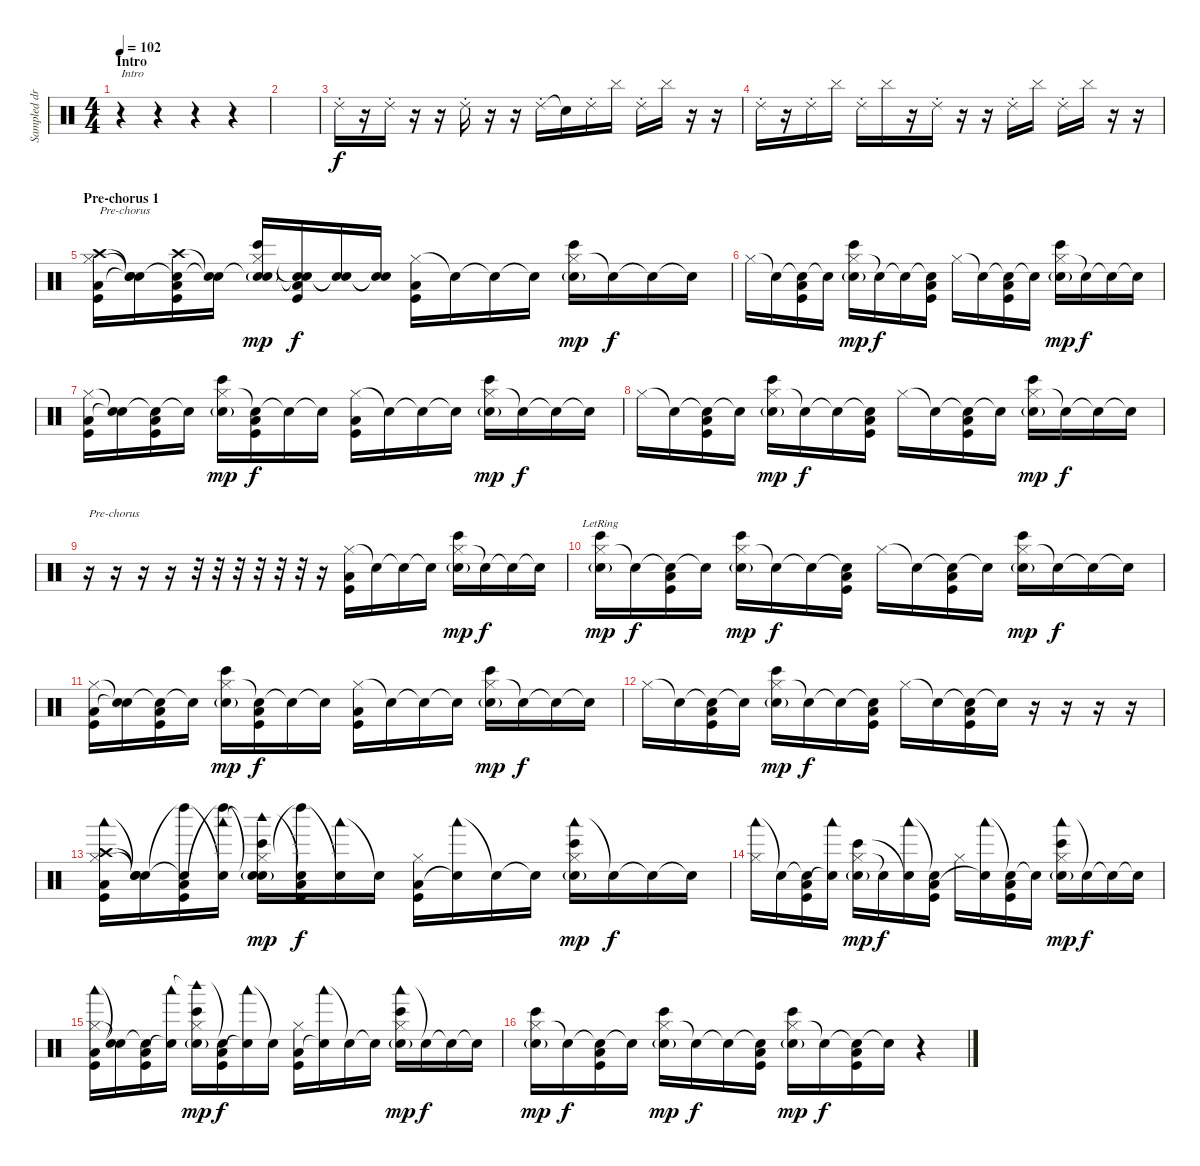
\track ("Sampled drums (Rob and Joe)" "Sampled dr") {instrument percussion}
\staff {score}
\articulation defaults
\ts (4 4)
\section ("" "Intro")
\tempo 102
\clef neutral
\ks c
r.4{txt "Intro" dy f} r.4 r.4 r.4 |
|
"Ride (choke) 2".16{volume 10} r.16 "Ride (choke) 2".16 r.16 r.16 "Ride (choke) 2".16 r.16 r.16 "Ride (choke) 2".16 "Snare (hit)"{t}.16 "Ride (choke) 2".16 "Cymbal (hit)".16 "Ride (choke) 2".16 "Cymbal (hit)".16 r.16 r.16 |
"Ride (choke) 2".16{volume 10} r.16 "Ride (choke) 2".16 "Cymbal (hit)".16 "Ride (choke) 2".16 "Cymbal (hit)".16 r.16 "Ride (choke) 2".16 r.16 r.16 "Ride (choke) 2".16 "Cymbal (hit)".16 "Ride (choke) 2".16 "Cymbal (hit)".16 r.16 r.16 |
\section ("" "Pre-chorus 1")
("Crash high (hit)" "Hi-Hat (closed)" "Low Floor Tom (hit)" "Kick (hit)").16{txt "Pre-chorus" volume 10} ("Snare (hit)"{t} "Snare (hit)"{t} "Snare (hit)"{t}).16 ("Crash high (hit)" "Snare (hit)"{t} "Low Floor Tom (hit)" "Kick (hit)").16 ("Snare (hit)"{t} "Snare (hit)"{t}).16 ("Snare (hit)"{t} "Hi-Hat (closed)" "Bongo High (hit)" "Electric Snare (hit)"{g}).16{dy mp} ("Snare (hit)"{t} "Snare (hit)"{t} "Low Floor Tom (hit)" "Kick (hit)").16{dy f} ("Snare (hit)"{t} "Snare (hit)"{t}).16 ("Snare (hit)"{t} "Snare (hit)"{t}).16 ("Hi-Hat (closed)" "Low Floor Tom (hit)" "Kick (hit)").16 "Snare (hit)"{t}.16 "Snare (hit)"{t}.16 "Snare (hit)"{t}.16 ("Hi-Hat (closed)" "Bongo High (hit)" "Electric Snare (hit)"{g}).16{dy mp} "Snare (hit)"{t}.16{dy f} "Snare (hit)"{t}.16 "Snare (hit)"{t}.16 |
"Hi-Hat (closed)".16 "Snare (hit)"{t}.16 ("Snare (hit)"{t} "Low Floor Tom (hit)" "Kick (hit)").16 "Snare (hit)"{t}.16 ("Hi-Hat (closed)" "Bongo High (hit)" "Electric Snare (hit)"{g}).16{dy mp} "Snare (hit)"{t}.16{dy f} "Snare (hit)"{t}.16 ("Snare (hit)"{t} "Low Floor Tom (hit)" "Kick (hit)").16 "Hi-Hat (closed)".16 "Snare (hit)"{t}.16 ("Snare (hit)"{t} "Low Floor Tom (hit)" "Kick (hit)").16 "Snare (hit)"{t}.16 ("Hi-Hat (closed)" "Bongo High (hit)" "Electric Snare (hit)"{g}).16{dy mp} "Snare (hit)"{t}.16{dy f} "Snare (hit)"{t}.16 "Snare (hit)"{t}.16 |
("Hi-Hat (closed)" "Low Floor Tom (hit)" "Kick (hit)").16 ("Snare (hit)"{t} "Snare (hit)"{t}).16 ("Snare (hit)"{t} "Low Floor Tom (hit)" "Kick (hit)").16 "Snare (hit)"{t}.16 ("Hi-Hat (closed)" "Bongo High (hit)" "Electric Snare (hit)"{g}).16{dy mp} ("Snare (hit)"{t} "Low Floor Tom (hit)" "Kick (hit)").16{dy f} "Snare (hit)"{t}.16 "Snare (hit)"{t}.16 ("Hi-Hat (closed)" "Low Floor Tom (hit)" "Kick (hit)").16 "Snare (hit)"{t}.16 "Snare (hit)"{t}.16 "Snare (hit)"{t}.16 ("Hi-Hat (closed)" "Bongo High (hit)" "Electric Snare (hit)"{g}).16{dy mp} "Snare (hit)"{t}.16{dy f} "Snare (hit)"{t}.16 "Snare (hit)"{t}.16 |
"Hi-Hat (closed)".16 "Snare (hit)"{t}.16 ("Snare (hit)"{t} "Low Floor Tom (hit)" "Kick (hit)").16 "Snare (hit)"{t}.16 ("Hi-Hat (closed)" "Bongo High (hit)" "Electric Snare (hit)"{g}).16{dy mp} "Snare (hit)"{t}.16{dy f} "Snare (hit)"{t}.16 ("Snare (hit)"{t} "Low Floor Tom (hit)" "Kick (hit)").16 "Hi-Hat (closed)".16 "Snare (hit)"{t}.16 ("Snare (hit)"{t} "Low Floor Tom (hit)" "Kick (hit)").16 "Snare (hit)"{t}.16 ("Hi-Hat (closed)" "Bongo High (hit)" "Electric Snare (hit)"{g}).16{dy mp} "Snare (hit)"{t}.16{dy f} "Snare (hit)"{t}.16 "Snare (hit)"{t}.16 |
r.16{txt "Pre-chorus" volume 10} r.16 r.16 r.16 r.32 r.32 r.32 r.32 r.32 r.32 r.16 ("Hi-Hat (closed)" "Low Floor Tom (hit)" "Kick (hit)").16 "Snare (hit)"{t}.16 "Snare (hit)"{t}.16 "Snare (hit)"{t}.16 ("Hi-Hat (closed)" "Bongo High (hit)" "Electric Snare (hit)"{g}).16{dy mp} "Snare (hit)"{t}.16{dy f} "Snare (hit)"{t}.16 "Snare (hit)"{t}.16 |
("Hi-Hat (closed)" "Bongo High (hit)" "Electric Snare (hit)"{g lr}).16{dy mp} "Snare (hit)"{t}.16{dy f} ("Snare (hit)"{t} "Low Floor Tom (hit)" "Kick (hit)").16 "Snare (hit)"{t}.16 ("Hi-Hat (closed)" "Bongo High (hit)" "Electric Snare (hit)"{g}).16{dy mp} "Snare (hit)"{t}.16{dy f} "Snare (hit)"{t}.16 ("Snare (hit)"{t} "Low Floor Tom (hit)" "Kick (hit)").16 "Hi-Hat (closed)".16 "Snare (hit)"{t}.16 ("Snare (hit)"{t} "Low Floor Tom (hit)" "Kick (hit)").16 "Snare (hit)"{t}.16 ("Hi-Hat (closed)" "Bongo High (hit)" "Electric Snare (hit)"{g}).16{dy mp} "Snare (hit)"{t}.16{dy f} "Snare (hit)"{t}.16 "Snare (hit)"{t}.16 |
("Hi-Hat (closed)" "Low Floor Tom (hit)" "Kick (hit)").16 ("Snare (hit)"{t} "Snare (hit)"{t}).16 ("Snare (hit)"{t} "Low Floor Tom (hit)" "Kick (hit)").16 "Snare (hit)"{t}.16 ("Hi-Hat (closed)" "Bongo High (hit)" "Electric Snare (hit)"{g}).16{dy mp} ("Snare (hit)"{t} "Low Floor Tom (hit)" "Kick (hit)").16{dy f} "Snare (hit)"{t}.16 "Snare (hit)"{t}.16 ("Hi-Hat (closed)" "Low Floor Tom (hit)" "Kick (hit)").16 "Snare (hit)"{t}.16 "Snare (hit)"{t}.16 "Snare (hit)"{t}.16 ("Hi-Hat (closed)" "Bongo High (hit)" "Electric Snare (hit)"{g}).16{dy mp} "Snare (hit)"{t}.16{dy f} "Snare (hit)"{t}.16 "Snare (hit)"{t}.16 |
"Hi-Hat (closed)".16 "Snare (hit)"{t}.16 ("Snare (hit)"{t} "Low Floor Tom (hit)" "Kick (hit)").16 "Snare (hit)"{t}.16 ("Hi-Hat (closed)" "Bongo High (hit)" "Electric Snare (hit)"{g}).16{dy mp} "Snare (hit)"{t}.16{dy f} "Snare (hit)"{t}.16 ("Snare (hit)"{t} "Low Floor Tom (hit)" "Kick (hit)").16 "Hi-Hat (closed)".16 "Snare (hit)"{t}.16 ("Snare (hit)"{t} "Low Floor Tom (hit)" "Kick (hit)").16 "Snare (hit)"{t}.16 r.16 r.16 r.16 r.16 |
("Woodblock low (hit)" "Hi-Hat (closed)" "Crash high (hit)" "Low Floor Tom (hit)" "Kick (hit)").16 ("Snare (hit)"{t} "Snare (hit)"{t} "Snare (hit)"{t}).16 ("Snare (hit)"{t} "Left Maraca (hit)"{t} "Low Floor Tom (hit)" "Kick (hit)").16 ("Woodblock low (hit)" "Snare (hit)"{t} "Left Maraca (hit)"{t}).16 ("Woodblock high (hit)"{t} "Hi-Hat (closed)" "Snare (hit)"{t} "Bongo High (hit)" "Electric Snare (hit)"{g}).16{dy mp} ("Snare (hit)"{t} "Left Maraca (hit)"{t} "Low Floor Tom (hit)" "Kick (hit)").16{dy f} ("Woodblock low (hit)" "Snare (hit)"{t}).16 "Snare (hit)"{t}.16 ("Hi-Hat (closed)" "Low Floor Tom (hit)" "Kick (hit)").16 ("Woodblock low (hit)" "Snare (hit)"{t}).16 "Snare (hit)"{t}.16 "Snare (hit)"{t}.16 ("Woodblock low (hit)" "Hi-Hat (closed)" "Bongo High (hit)" "Electric Snare (hit)"{g}).16{dy mp} "Snare (hit)"{t}.16{dy f} "Snare (hit)"{t}.16 "Snare (hit)"{t}.16 |
("Woodblock low (hit)" "Hi-Hat (closed)").16 "Snare (hit)"{t}.16 ("Snare (hit)"{t} "Low Floor Tom (hit)" "Kick (hit)").16 ("Woodblock low (hit)" "Snare (hit)"{t}).16 ("Hi-Hat (closed)" "Bongo High (hit)" "Electric Snare (hit)"{g}).16{dy mp} "Snare (hit)"{t}.16{dy f} ("Woodblock low (hit)" "Snare (hit)"{t}).16 ("Snare (hit)"{t} "Low Floor Tom (hit)" "Kick (hit)").16 "Hi-Hat (closed)".16 ("Woodblock low (hit)" "Snare (hit)"{t}).16 ("Snare (hit)"{t} "Low Floor Tom (hit)" "Kick (hit)").16 "Snare (hit)"{t}.16 ("Woodblock low (hit)" "Hi-Hat (closed)" "Bongo High (hit)" "Electric Snare (hit)"{g}).16{dy mp} "Snare (hit)"{t}.16{dy f} "Snare (hit)"{t}.16 "Snare (hit)"{t}.16 |
("Woodblock low (hit)" "Hi-Hat (closed)" "Low Floor Tom (hit)" "Kick (hit)").16 ("Snare (hit)"{t} "Snare (hit)"{t}).16 ("Snare (hit)"{t} "Low Floor Tom (hit)" "Kick (hit)").16 ("Woodblock low (hit)" "Snare (hit)"{t}).16 ("Woodblock high (hit)"{t} "Hi-Hat (closed)" "Bongo High (hit)" "Electric Snare (hit)"{g}).16{dy mp} ("Snare (hit)"{t} "Low Floor Tom (hit)" "Kick (hit)").16{dy f} ("Woodblock low (hit)" "Snare (hit)"{t}).16 "Snare (hit)"{t}.16 ("Hi-Hat (closed)" "Low Floor Tom (hit)" "Kick (hit)").16 ("Woodblock low (hit)" "Snare (hit)"{t}).16 "Snare (hit)"{t}.16 "Snare (hit)"{t}.16 ("Woodblock low (hit)" "Hi-Hat (closed)" "Bongo High (hit)" "Electric Snare (hit)"{g}).16{dy mp} "Snare (hit)"{t}.16{dy f} "Snare (hit)"{t}.16 "Snare (hit)"{t}.16 |
("Hi-Hat (closed)" "Bongo High (hit)" "Electric Snare (hit)"{g}).16{dy mp} "Snare (hit)"{t}.16{dy f} ("Snare (hit)"{t} "Low Floor Tom (hit)" "Kick (hit)").16 "Snare (hit)"{t}.16 ("Hi-Hat (closed)" "Bongo High (hit)" "Electric Snare (hit)"{g}).16{dy mp} "Snare (hit)"{t}.16{dy f} "Snare (hit)"{t}.16 ("Snare (hit)"{t} "Low Floor Tom (hit)" "Kick (hit)").16 ("Hi-Hat (closed)" "Bongo High (hit)" "Electric Snare (hit)"{g}).16{dy mp} "Snare (hit)"{t}.16{dy f} ("Snare (hit)"{t} "Low Floor Tom (hit)" "Kick (hit)").16 "Snare (hit)"{t}.16 r.4
